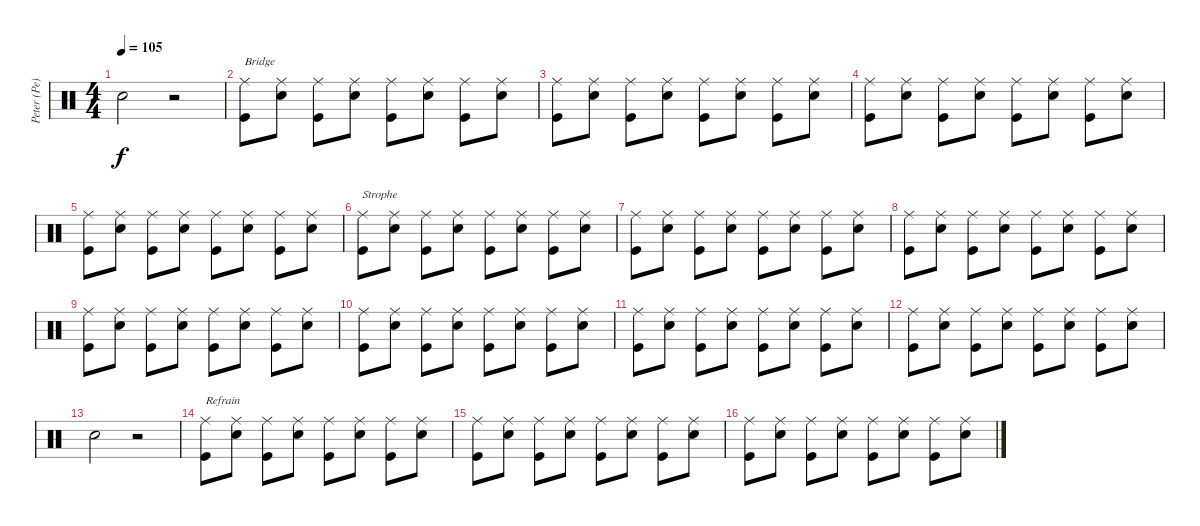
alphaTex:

\track ("Peter (Pe) Schorowsky" "Peter (Pe)") {instrument percussion}
\staff {score}
\articulation defaults
\ts (4 4)
\tempo 105
\clef neutral
\ks c "Snare (hit) 2".2{dy f}
r.2 |
("Ride (middle)" "Kick (hit)").8{txt "Bridge"} ("Ride (middle)" "Snare (hit) 2").8 ("Ride (middle)" "Kick (hit)").8 ("Ride (middle)" "Snare (hit) 2").8 ("Ride (middle)" "Kick (hit)").8 ("Ride (middle)" "Snare (hit) 2").8 ("Ride (middle)" "Kick (hit)").8 ("Ride (middle)" "Snare (hit) 2").8 |
("Ride (middle)" "Kick (hit)").8 ("Ride (middle)" "Snare (hit) 2").8 ("Ride (middle)" "Kick (hit)").8 ("Ride (middle)" "Snare (hit) 2").8 ("Ride (middle)" "Kick (hit)").8 ("Ride (middle)" "Snare (hit) 2").8 ("Ride (middle)" "Kick (hit)").8 ("Ride (middle)" "Snare (hit) 2").8 |
("Ride (middle)" "Kick (hit)").8 ("Ride (middle)" "Snare (hit) 2").8 ("Ride (middle)" "Kick (hit)").8 ("Ride (middle)" "Snare (hit) 2").8 ("Ride (middle)" "Kick (hit)").8 ("Ride (middle)" "Snare (hit) 2").8 ("Ride (middle)" "Kick (hit)").8 ("Ride (middle)" "Snare (hit) 2").8 |
("Ride (middle)" "Kick (hit)").8 ("Ride (middle)" "Snare (hit) 2").8 ("Ride (middle)" "Kick (hit)").8 ("Ride (middle)" "Snare (hit) 2").8 ("Ride (middle)" "Kick (hit)").8 ("Ride (middle)" "Snare (hit) 2").8 ("Ride (middle)" "Kick (hit)").8 ("Ride (middle)" "Snare (hit) 2").8 |
("Ride (middle)" "Kick (hit)").8{txt "Strophe"} ("Ride (middle)" "Snare (hit) 2").8 ("Ride (middle)" "Kick (hit)").8 ("Ride (middle)" "Snare (hit) 2").8 ("Ride (middle)" "Kick (hit)").8 ("Ride (middle)" "Snare (hit) 2").8 ("Ride (middle)" "Kick (hit)").8 ("Ride (middle)" "Snare (hit) 2").8 |
("Ride (middle)" "Kick (hit)").8 ("Ride (middle)" "Snare (hit) 2").8 ("Ride (middle)" "Kick (hit)").8 ("Ride (middle)" "Snare (hit) 2").8 ("Ride (middle)" "Kick (hit)").8 ("Ride (middle)" "Snare (hit) 2").8 ("Ride (middle)" "Kick (hit)").8 ("Ride (middle)" "Snare (hit) 2").8 |
("Ride (middle)" "Kick (hit)").8 ("Ride (middle)" "Snare (hit) 2").8 ("Ride (middle)" "Kick (hit)").8 ("Ride (middle)" "Snare (hit) 2").8 ("Ride (middle)" "Kick (hit)").8 ("Ride (middle)" "Snare (hit) 2").8 ("Ride (middle)" "Kick (hit)").8 ("Ride (middle)" "Snare (hit) 2").8 |
("Ride (middle)" "Kick (hit)").8 ("Ride (middle)" "Snare (hit) 2").8 ("Ride (middle)" "Kick (hit)").8 ("Ride (middle)" "Snare (hit) 2").8 ("Ride (middle)" "Kick (hit)").8 ("Ride (middle)" "Snare (hit) 2").8 ("Ride (middle)" "Kick (hit)").8 ("Ride (middle)" "Snare (hit) 2").8 |
("Ride (middle)" "Kick (hit)").8 ("Ride (middle)" "Snare (hit) 2").8 ("Ride (middle)" "Kick (hit)").8 ("Ride (middle)" "Snare (hit) 2").8 ("Ride (middle)" "Kick (hit)").8 ("Ride (middle)" "Snare (hit) 2").8 ("Ride (middle)" "Kick (hit)").8 ("Ride (middle)" "Snare (hit) 2").8 |
("Ride (middle)" "Kick (hit)").8 ("Ride (middle)" "Snare (hit) 2").8 ("Ride (middle)" "Kick (hit)").8 ("Ride (middle)" "Snare (hit) 2").8 ("Ride (middle)" "Kick (hit)").8 ("Ride (middle)" "Snare (hit) 2").8 ("Ride (middle)" "Kick (hit)").8 ("Ride (middle)" "Snare (hit) 2").8 |
("Ride (middle)" "Kick (hit)").8 ("Ride (middle)" "Snare (hit) 2").8 ("Ride (middle)" "Kick (hit)").8 ("Ride (middle)" "Snare (hit) 2").8 ("Ride (middle)" "Kick (hit)").8 ("Ride (middle)" "Snare (hit) 2").8 ("Ride (middle)" "Kick (hit)").8 ("Ride (middle)" "Snare (hit) 2").8 |
"Snare (hit) 2".2 r.2 |
("Ride (middle)" "Kick (hit)").8{txt "Refrain"} ("Ride (middle)" "Snare (hit) 2").8 ("Ride (middle)" "Kick (hit)").8 ("Ride (middle)" "Snare (hit) 2").8 ("Ride (middle)" "Kick (hit)").8 ("Ride (middle)" "Snare (hit) 2").8 ("Ride (middle)" "Kick (hit)").8 ("Ride (middle)" "Snare (hit) 2").8 |
("Ride (middle)" "Kick (hit)").8 ("Ride (middle)" "Snare (hit) 2").8 ("Ride (middle)" "Kick (hit)").8 ("Ride (middle)" "Snare (hit) 2").8 ("Ride (middle)" "Kick (hit)").8 ("Ride (middle)" "Snare (hit) 2").8 ("Ride (middle)" "Kick (hit)").8 ("Ride (middle)" "Snare (hit) 2").8 |
("Ride (middle)" "Kick (hit)").8 ("Ride (middle)" "Snare (hit) 2").8 ("Ride (middle)" "Kick (hit)").8 ("Ride (middle)" "Snare (hit) 2").8 ("Ride (middle)" "Kick (hit)").8 ("Ride (middle)" "Snare (hit) 2").8 ("Ride (middle)" "Kick (hit)").8 ("Ride (middle)" "Snare (hit) 2").8
